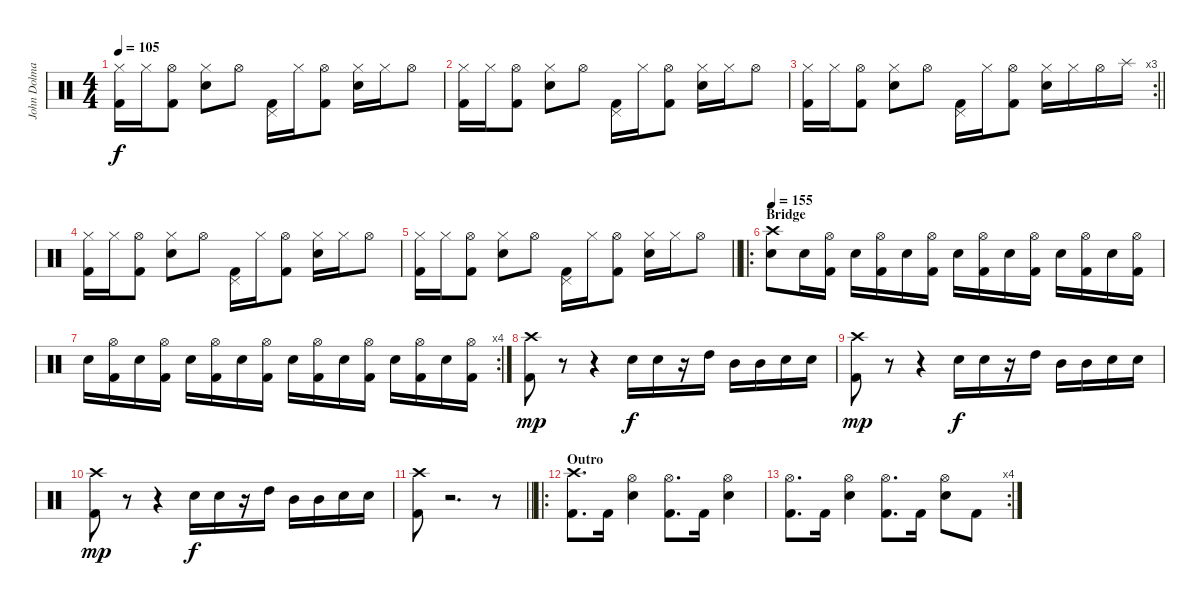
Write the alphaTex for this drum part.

\track ("John Dolmayan" "John Dolma") {instrument percussion}
\staff {score}
\articulation defaults
\ts (4 4)
\tempo 105
\clef neutral
\ks c
("Kick (hit) 2" "Hi-Hat (closed)").16{dy f} "Hi-Hat (closed)".16 ("Kick (hit) 2" "Hi-Hat (open)").8 ("Electric Snare (hit)" "Hi-Hat (closed)").8 "Hi-Hat (open)".8 ("Kick (hit) 2" "Pedal Hi-Hat (hit)").16 "Hi-Hat (closed)".16 ("Kick (hit) 2" "Hi-Hat (open)").8 ("Electric Snare (hit)" "Hi-Hat (closed)").16 "Hi-Hat (closed)".16 "Hi-Hat (open)".8 |
("Kick (hit) 2" "Hi-Hat (closed)").16 "Hi-Hat (closed)".16 ("Kick (hit) 2" "Hi-Hat (open)").8 ("Electric Snare (hit)" "Hi-Hat (closed)").8 "Hi-Hat (open)".8 ("Kick (hit) 2" "Pedal Hi-Hat (hit)").16 "Hi-Hat (closed)".16 ("Kick (hit) 2" "Hi-Hat (open)").8 ("Electric Snare (hit)" "Hi-Hat (closed)").16 "Hi-Hat (closed)".16 "Hi-Hat (open)".8 |
\rc 3
\barLineRight lightlight
("Kick (hit) 2" "Hi-Hat (closed)").16 "Hi-Hat (closed)".16 ("Kick (hit) 2" "Hi-Hat (open)").8 ("Electric Snare (hit)" "Hi-Hat (closed)").8 "Hi-Hat (open)".8 ("Kick (hit) 2" "Pedal Hi-Hat (hit)").16 "Hi-Hat (closed)".16 ("Kick (hit) 2" "Hi-Hat (open)").8 ("Electric Snare (hit)" "Hi-Hat (closed)").16 "Hi-Hat (closed)".16 "Hi-Hat (open)".16 "Splash (hit)".16 |
("Kick (hit) 2" "Hi-Hat (closed)").16 "Hi-Hat (closed)".16 ("Kick (hit) 2" "Hi-Hat (open)").8 ("Electric Snare (hit)" "Hi-Hat (closed)").8 "Hi-Hat (open)".8 ("Kick (hit) 2" "Pedal Hi-Hat (hit)").16 "Hi-Hat (closed)".16 ("Kick (hit) 2" "Hi-Hat (open)").8 ("Electric Snare (hit)" "Hi-Hat (closed)").16 "Hi-Hat (closed)".16 "Hi-Hat (open)".8 |
\barLineRight lightlight
("Kick (hit) 2" "Hi-Hat (closed)").16 "Hi-Hat (closed)".16 ("Kick (hit) 2" "Hi-Hat (open)").8 ("Electric Snare (hit)" "Hi-Hat (closed)").8 "Hi-Hat (open)".8 ("Kick (hit) 2" "Pedal Hi-Hat (hit)").16 "Hi-Hat (closed)".16 ("Kick (hit) 2" "Hi-Hat (open)").8 ("Electric Snare (hit)" "Hi-Hat (closed)").16 "Hi-Hat (closed)".16 "Hi-Hat (open)".8 |
\ro
\section ("" "Bridge")
\tempo 155
("Crash high (hit)" "Electric Snare (hit)").8 "Electric Snare (hit)".16 ("Kick (hit) 2" "Hi-Hat (open)").16 "Electric Snare (hit)".16 ("Kick (hit) 2" "Hi-Hat (open)").16 "Electric Snare (hit)".16 ("Kick (hit) 2" "Hi-Hat (open)").16 "Electric Snare (hit)".16 ("Kick (hit) 2" "Hi-Hat (open)").16 "Electric Snare (hit)".16 ("Kick (hit) 2" "Hi-Hat (open)").16 "Electric Snare (hit)".16 ("Kick (hit) 2" "Hi-Hat (open)").16 "Electric Snare (hit)".16 ("Kick (hit) 2" "Hi-Hat (open)").16 |
\rc 4 "Electric Snare (hit)".16
("Kick (hit) 2" "Hi-Hat (open)").16 "Electric Snare (hit)".16 ("Kick (hit) 2" "Hi-Hat (open)").16 "Electric Snare (hit)".16 ("Kick (hit) 2" "Hi-Hat (open)").16 "Electric Snare (hit)".16 ("Kick (hit) 2" "Hi-Hat (open)").16 "Electric Snare (hit)".16 ("Kick (hit) 2" "Hi-Hat (open)").16 "Electric Snare (hit)".16 ("Kick (hit) 2" "Hi-Hat (open)").16 "Electric Snare (hit)".16 ("Kick (hit) 2" "Hi-Hat (open)").16 "Electric Snare (hit)".16 ("Kick (hit) 2" "Hi-Hat (open)").16 |
("Kick (hit) 2" "Crash high (hit)").8{dy mp} r.8 r.4 "Electric Snare (hit)".16{dy f} "Electric Snare (hit)".16 r.16 "High Tom (hit)".16 "Mid Tom (hit)".16 "Mid Tom (hit)".16 "Electric Snare (hit)".16 "Electric Snare (hit)".16 |
("Kick (hit) 2" "Crash high (hit)").8{dy mp} r.8 r.4 "Electric Snare (hit)".16{dy f} "Electric Snare (hit)".16 r.16 "High Tom (hit)".16 "Mid Tom (hit)".16 "Mid Tom (hit)".16 "Electric Snare (hit)".16 "Electric Snare (hit)".16 |
("Kick (hit) 2" "Crash high (hit)").8{dy mp} r.8 r.4 "Electric Snare (hit)".16{dy f} "Electric Snare (hit)".16 r.16 "High Tom (hit)".16 "Mid Tom (hit)".16 "Mid Tom (hit)".16 "Electric Snare (hit)".16 "Electric Snare (hit)".16 |
\barLineRight lightlight
("Kick (hit) 2" "Crash high (hit)").8 r.2{d} r.8 |
\ro
\section ("" "Outro")
("Kick (hit) 2" "Crash high (hit)").8{d} "Kick (hit) 2".16 ("Hi-Hat (open)" "Electric Snare (hit)").4 ("Kick (hit) 2" "Hi-Hat (open)").8{d} "Kick (hit) 2".16 ("Hi-Hat (open)" "Electric Snare (hit)").4 |
\rc 4
("Kick (hit) 2" "Hi-Hat (open)").8{d} "Kick (hit) 2".16 ("Hi-Hat (open)" "Electric Snare (hit)").4 ("Kick (hit) 2" "Hi-Hat (open)").8{d} "Kick (hit) 2".16 ("Hi-Hat (open)" "Electric Snare (hit)").8 "Kick (hit) 2".8
